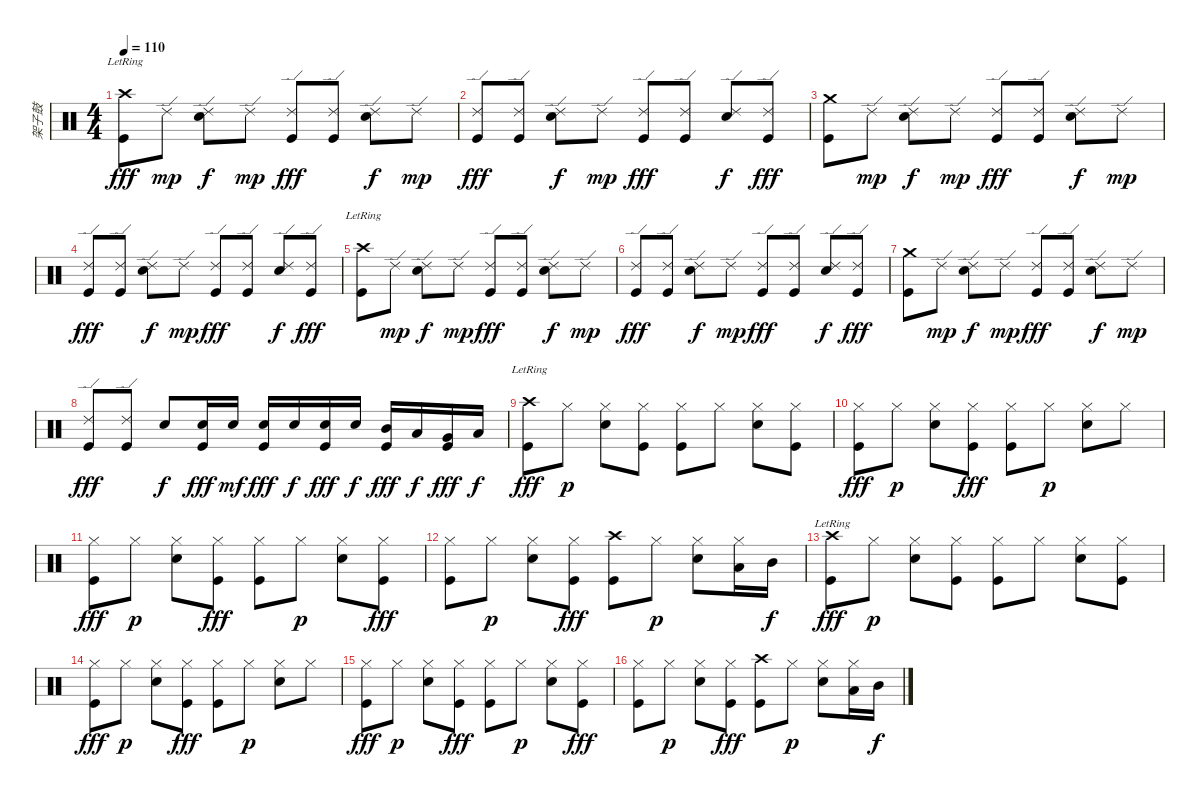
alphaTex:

\track ("架子鼓" "架子鼓") {instrument percussion}
\staff {score}
\articulation defaults
\ts (4 4)
\tempo 110
\clef neutral
\ks c
("Crash high (hit)"{lr} "Kick (hit)").8{dy fff} "Ride (edge) 2".8{dy mp} ("Ride (edge) 2" "Electric Snare (hit)").8{dy f} "Ride (edge) 2".8{dy mp} ("Ride (edge) 2" "Kick (hit)").8{dy fff} ("Ride (edge) 2" "Kick (hit)").8 ("Ride (edge) 2" "Electric Snare (hit)").8{dy f} "Ride (edge) 2".8{dy mp} |
("Ride (edge) 2" "Kick (hit)").8{dy fff} ("Ride (edge) 2" "Kick (hit)").8 ("Ride (edge) 2" "Electric Snare (hit)").8{dy f} "Ride (edge) 2".8{dy mp} ("Ride (edge) 2" "Kick (hit)").8{dy fff} ("Ride (edge) 2" "Kick (hit)").8 ("Ride (edge) 2" "Electric Snare (hit)").8{dy f} ("Ride (edge) 2" "Kick (hit)").8{dy fff} |
("Crash medium (hit)" "Kick (hit)").8 "Ride (edge) 2".8{dy mp} ("Ride (edge) 2" "Electric Snare (hit)").8{dy f} "Ride (edge) 2".8{dy mp} ("Ride (edge) 2" "Kick (hit)").8{dy fff} ("Ride (edge) 2" "Kick (hit)").8 ("Ride (edge) 2" "Electric Snare (hit)").8{dy f} "Ride (edge) 2".8{dy mp} |
("Ride (edge) 2" "Kick (hit)").8{dy fff} ("Ride (edge) 2" "Kick (hit)").8 ("Ride (edge) 2" "Electric Snare (hit)").8{dy f} "Ride (edge) 2".8{dy mp} ("Ride (edge) 2" "Kick (hit)").8{dy fff} ("Ride (edge) 2" "Kick (hit)").8 ("Ride (edge) 2" "Electric Snare (hit)").8{dy f} ("Ride (edge) 2" "Kick (hit)").8{dy fff} |
("Crash high (hit)"{lr} "Kick (hit)").8 "Ride (edge) 2".8{dy mp} ("Ride (edge) 2" "Electric Snare (hit)").8{dy f} "Ride (edge) 2".8{dy mp} ("Ride (edge) 2" "Kick (hit)").8{dy fff} ("Ride (edge) 2" "Kick (hit)").8 ("Ride (edge) 2" "Electric Snare (hit)").8{dy f} "Ride (edge) 2".8{dy mp} |
("Ride (edge) 2" "Kick (hit)").8{dy fff} ("Ride (edge) 2" "Kick (hit)").8 ("Ride (edge) 2" "Electric Snare (hit)").8{dy f} "Ride (edge) 2".8{dy mp} ("Ride (edge) 2" "Kick (hit)").8{dy fff} ("Ride (edge) 2" "Kick (hit)").8 ("Ride (edge) 2" "Electric Snare (hit)").8{dy f} ("Ride (edge) 2" "Kick (hit)").8{dy fff} |
("Crash medium (hit)" "Kick (hit)").8 "Ride (edge) 2".8{dy mp} ("Ride (edge) 2" "Electric Snare (hit)").8{dy f} "Ride (edge) 2".8{dy mp} ("Ride (edge) 2" "Kick (hit)").8{dy fff} ("Ride (edge) 2" "Kick (hit)").8 ("Ride (edge) 2" "Electric Snare (hit)").8{dy f} "Ride (edge) 2".8{dy mp} |
("Ride (edge) 2" "Kick (hit)").8{dy fff} ("Ride (edge) 2" "Kick (hit)").8 "Electric Snare (hit)".8{dy f} ("Electric Snare (hit)" "Kick (hit)").16{dy fff} "Electric Snare (hit)".16{dy mf} ("Electric Snare (hit)" "Kick (hit)").16{dy fff} "Electric Snare (hit)".16{dy f} ("Electric Snare (hit)" "Kick (hit)").16{dy fff} "Electric Snare (hit)".16{dy f} ("Mid Tom (hit)" "Kick (hit)").16{dy fff} "Low Tom (hit)".16{dy f} ("Very Low Tom (hit)" "Kick (hit)").16{dy fff} "Low Floor Tom (hit)".16{dy f} |
("Crash high (hit)"{lr} "Kick (hit)").8{dy fff} "Hi-Hat (closed)".8{dy p} ("Electric Snare (hit)" "Hi-Hat (closed)").8 ("Hi-Hat (closed)" "Kick (hit)").8 ("Hi-Hat (closed)" "Kick (hit)").8 "Hi-Hat (closed)".8 ("Electric Snare (hit)" "Hi-Hat (closed)").8 ("Hi-Hat (closed)" "Kick (hit)").8 |
("Hi-Hat (closed)" "Kick (hit)").8{dy fff} "Hi-Hat (closed)".8{dy p} ("Electric Snare (hit)" "Hi-Hat (closed)").8 ("Hi-Hat (closed)" "Kick (hit)").8{dy fff} ("Hi-Hat (closed)" "Kick (hit)").8 "Hi-Hat (closed)".8{dy p} ("Electric Snare (hit)" "Hi-Hat (closed)").8 "Hi-Hat (closed)".8 |
("Hi-Hat (closed)" "Kick (hit)").8{dy fff} "Hi-Hat (closed)".8{dy p} ("Electric Snare (hit)" "Hi-Hat (closed)").8 ("Hi-Hat (closed)" "Kick (hit)").8{dy fff} ("Hi-Hat (closed)" "Kick (hit)").8 "Hi-Hat (closed)".8{dy p} ("Electric Snare (hit)" "Hi-Hat (closed)").8 ("Hi-Hat (closed)" "Kick (hit)").8{dy fff} |
("Hi-Hat (closed)" "Kick (hit)").8 "Hi-Hat (closed)".8{dy p} ("Electric Snare (hit)" "Hi-Hat (closed)").8 ("Hi-Hat (closed)" "Kick (hit)").8{dy fff} ("Crash high (hit)" "Kick (hit)").8 "Hi-Hat (closed)".8{dy p} ("Electric Snare (hit)" "Hi-Hat (closed)").8 ("Low Tom (hit)" "Hi-Hat (closed)").16 "Mid Tom (hit)".16{dy f} |
("Crash high (hit)"{lr} "Kick (hit)").8{dy fff} "Hi-Hat (closed)".8{dy p} ("Electric Snare (hit)" "Hi-Hat (closed)").8 ("Hi-Hat (closed)" "Kick (hit)").8 ("Hi-Hat (closed)" "Kick (hit)").8 "Hi-Hat (closed)".8 ("Electric Snare (hit)" "Hi-Hat (closed)").8 ("Hi-Hat (closed)" "Kick (hit)").8 |
("Hi-Hat (closed)" "Kick (hit)").8{dy fff} "Hi-Hat (closed)".8{dy p} ("Electric Snare (hit)" "Hi-Hat (closed)").8 ("Hi-Hat (closed)" "Kick (hit)").8{dy fff} ("Hi-Hat (closed)" "Kick (hit)").8 "Hi-Hat (closed)".8{dy p} ("Electric Snare (hit)" "Hi-Hat (closed)").8 "Hi-Hat (closed)".8 |
("Hi-Hat (closed)" "Kick (hit)").8{dy fff} "Hi-Hat (closed)".8{dy p} ("Electric Snare (hit)" "Hi-Hat (closed)").8 ("Hi-Hat (closed)" "Kick (hit)").8{dy fff} ("Hi-Hat (closed)" "Kick (hit)").8 "Hi-Hat (closed)".8{dy p} ("Electric Snare (hit)" "Hi-Hat (closed)").8 ("Hi-Hat (closed)" "Kick (hit)").8{dy fff} |
("Hi-Hat (closed)" "Kick (hit)").8 "Hi-Hat (closed)".8{dy p} ("Electric Snare (hit)" "Hi-Hat (closed)").8 ("Hi-Hat (closed)" "Kick (hit)").8{dy fff} ("Crash high (hit)" "Kick (hit)").8 "Hi-Hat (closed)".8{dy p} ("Electric Snare (hit)" "Hi-Hat (closed)").8 ("Low Tom (hit)" "Hi-Hat (closed)").16 "Mid Tom (hit)".16{dy f}
